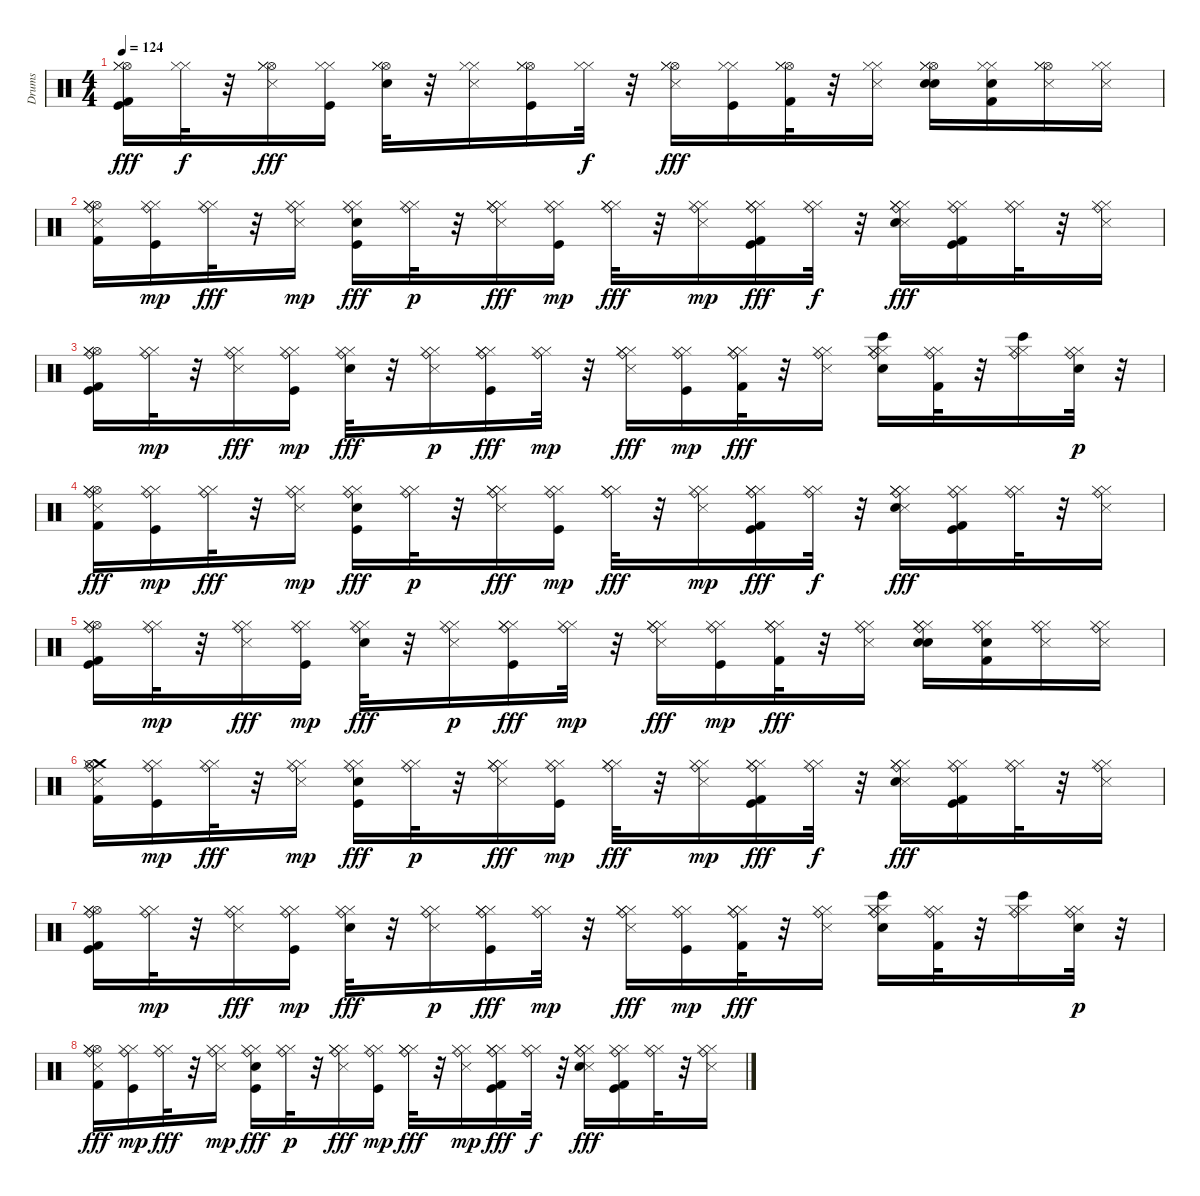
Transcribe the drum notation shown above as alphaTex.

\track ("Drums" "Drums") {instrument percussion}
\staff {score}
\articulation defaults
\ts (4 4)
\tempo 124
\clef neutral
\ks c
("Kick (hit)" "Kick (hit) 2" "Hi-Hat (open)" "Hi-Hat (closed)" "Hi-Hat (closed)").16{dy fff} ("Hi-Hat (closed)" "Hi-Hat (closed)").32{dy f} r.32 ("Metronome (hit)" "Hi-Hat (open)" "Hi-Hat (closed)" "Hi-Hat (closed)").16{dy fff} ("Kick (hit)" "Hi-Hat (closed)" "Hi-Hat (closed)").16 ("Hi-Hat (open)" "Electric Snare (hit)" "Hi-Hat (closed)" "Hi-Hat (closed)").32 r.32 ("Metronome (hit)" "Hi-Hat (closed)" "Hi-Hat (closed)").16 ("Kick (hit)" "Hi-Hat (open)" "Hi-Hat (closed)" "Hi-Hat (closed)").16 ("Hi-Hat (closed)" "Hi-Hat (closed)").32{dy f} r.32 ("Metronome (hit)" "Hi-Hat (open)" "Hi-Hat (closed)" "Hi-Hat (closed)").16{dy fff} ("Kick (hit)" "Hi-Hat (closed)" "Hi-Hat (closed)").16 ("Hi-Hat (open)" "Kick (hit) 2" "Hi-Hat (closed)" "Hi-Hat (closed)").32 r.32 ("Metronome (hit)" "Hi-Hat (closed)" "Hi-Hat (closed)").16 ("Hand Clap (hit)" "Hi-Hat (open)" "Electric Snare (hit)" "Hi-Hat (closed)" "Hi-Hat (closed)").16 ("Hand Clap (hit)" "Kick (hit) 2" "Hi-Hat (closed)" "Hi-Hat (closed)").16 ("Snare (side stick) 3" "Hi-Hat (open)" "Hi-Hat (closed)" "Hi-Hat (closed)").16 ("Snare (side stick) 3" "Hi-Hat (closed)" "Hi-Hat (closed)").16 |
("Metronome (hit)" "Ride (bell)" "Kick (hit) 2" "Hi-Hat (open)" "Hi-Hat (closed)" "Hi-Hat (closed)").16 ("Kick (hit)" "Ride (bell)" "Hi-Hat (closed)" "Hi-Hat (closed)").16{dy mp} ("Ride (bell)" "Hi-Hat (closed)" "Hi-Hat (closed)").32{dy fff} r.32 ("Metronome (hit)" "Ride (bell)" "Hi-Hat (closed)" "Hi-Hat (closed)").16{dy mp} ("Kick (hit)" "Ride (bell)" "Electric Snare (hit)" "Hi-Hat (closed)" "Hi-Hat (closed)").16{dy fff} ("Ride (bell)" "Hi-Hat (closed)" "Hi-Hat (closed)").32{dy p} r.32 ("Metronome (hit)" "Hi-Hat (closed)" "Ride (bell)" "Hi-Hat (closed)" "Hi-Hat (closed)").16{dy fff} ("Kick (hit)" "Ride (bell)" "Hi-Hat (closed)" "Hi-Hat (closed)").16{dy mp} ("Hi-Hat (closed)" "Ride (bell)" "Hi-Hat (closed)" "Hi-Hat (closed)").32{dy fff} r.32 ("Metronome (hit)" "Ride (bell)" "Hi-Hat (closed)" "Hi-Hat (closed)").16{dy mp} ("Kick (hit)" "Hi-Hat (closed)" "Ride (bell)" "Kick (hit) 2" "Hi-Hat (closed)" "Hi-Hat (closed)").16{dy fff} ("Ride (bell)" "Hi-Hat (closed)" "Hi-Hat (closed)").32{dy f} r.32 ("Metronome (hit)" "Hi-Hat (closed)" "Ride (bell)" "Electric Snare (hit)" "Hi-Hat (closed)" "Hi-Hat (closed)").16{dy fff} ("Kick (hit)" "Ride (bell)" "Kick (hit) 2" "Hi-Hat (closed)" "Hi-Hat (closed)").16 ("Ride (bell)" "Hi-Hat (closed)" "Hi-Hat (closed)").32 r.32 ("Metronome (hit)" "Ride (bell)" "Hi-Hat (closed)" "Hi-Hat (closed)").16 |
("Kick (hit)" "Ride (bell)" "Hi-Hat (open)" "Kick (hit) 2" "Hi-Hat (closed)" "Hi-Hat (closed)").16 ("Ride (bell)" "Hi-Hat (closed)" "Hi-Hat (closed)").32{dy mp} r.32 ("Metronome (hit)" "Ride (bell)" "Hi-Hat (closed)" "Hi-Hat (closed)").16{dy fff} ("Kick (hit)" "Ride (bell)" "Hi-Hat (closed)" "Hi-Hat (closed)").16{dy mp} ("Ride (bell)" "Electric Snare (hit)" "Hi-Hat (closed)" "Hi-Hat (closed)").32{dy fff} r.32 ("Metronome (hit)" "Ride (bell)" "Hi-Hat (closed)" "Hi-Hat (closed)").16{dy p} ("Kick (hit)" "Hi-Hat (closed)" "Ride (bell)" "Hi-Hat (closed)" "Hi-Hat (closed)").16{dy fff} ("Ride (bell)" "Hi-Hat (closed)" "Hi-Hat (closed)").32{dy mp} r.32 ("Metronome (hit)" "Hi-Hat (closed)" "Ride (bell)" "Hi-Hat (closed)" "Hi-Hat (closed)").16{dy fff} ("Kick (hit)" "Ride (bell)" "Hi-Hat (closed)" "Hi-Hat (closed)").16{dy mp} ("Hi-Hat (closed)" "Ride (bell)" "Kick (hit) 2" "Hi-Hat (closed)" "Hi-Hat (closed)").32{dy fff} r.32 ("Metronome (hit)" "Ride (bell)" "Hi-Hat (closed)" "Hi-Hat (closed)").16 ("Bongo High (hit)" "Hi-Hat (closed)" "Ride (bell)" "Electric Snare (hit)" "Hi-Hat (closed)" "Hi-Hat (closed)").16 ("Ride (bell)" "Kick (hit) 2" "Hi-Hat (closed)" "Hi-Hat (closed)").32 r.32 ("Bongo High (hit)" "Ride (bell)" "Hi-Hat (closed)" "Hi-Hat (closed)").16 ("Ride (bell)" "Hi-Hat (closed)" "Hi-Hat (closed)" "Electric Snare (hit)").32{dy p} r.32 |
("Metronome (hit)" "Ride (bell)" "Kick (hit) 2" "Hi-Hat (open)" "Hi-Hat (closed)" "Hi-Hat (closed)").16{dy fff} ("Kick (hit)" "Ride (bell)" "Hi-Hat (closed)" "Hi-Hat (closed)").16{dy mp} ("Ride (bell)" "Hi-Hat (closed)" "Hi-Hat (closed)").32{dy fff} r.32 ("Metronome (hit)" "Ride (bell)" "Hi-Hat (closed)" "Hi-Hat (closed)").16{dy mp} ("Kick (hit)" "Ride (bell)" "Electric Snare (hit)" "Hi-Hat (closed)" "Hi-Hat (closed)").16{dy fff} ("Ride (bell)" "Hi-Hat (closed)" "Hi-Hat (closed)").32{dy p} r.32 ("Metronome (hit)" "Hi-Hat (closed)" "Ride (bell)" "Hi-Hat (closed)" "Hi-Hat (closed)").16{dy fff} ("Kick (hit)" "Ride (bell)" "Hi-Hat (closed)" "Hi-Hat (closed)").16{dy mp} ("Hi-Hat (closed)" "Ride (bell)" "Hi-Hat (closed)" "Hi-Hat (closed)").32{dy fff} r.32 ("Metronome (hit)" "Ride (bell)" "Hi-Hat (closed)" "Hi-Hat (closed)").16{dy mp} ("Kick (hit)" "Hi-Hat (closed)" "Ride (bell)" "Kick (hit) 2" "Hi-Hat (closed)" "Hi-Hat (closed)").16{dy fff} ("Ride (bell)" "Hi-Hat (closed)" "Hi-Hat (closed)").32{dy f} r.32 ("Metronome (hit)" "Hi-Hat (closed)" "Ride (bell)" "Electric Snare (hit)" "Hi-Hat (closed)" "Hi-Hat (closed)").16{dy fff} ("Kick (hit)" "Ride (bell)" "Kick (hit) 2" "Hi-Hat (closed)" "Hi-Hat (closed)").16 ("Ride (bell)" "Hi-Hat (closed)" "Hi-Hat (closed)").32 r.32 ("Metronome (hit)" "Ride (bell)" "Hi-Hat (closed)" "Hi-Hat (closed)").16 |
("Kick (hit)" "Ride (bell)" "Kick (hit) 2" "Hi-Hat (open)" "Hi-Hat (closed)" "Hi-Hat (closed)").16 ("Ride (bell)" "Hi-Hat (closed)" "Hi-Hat (closed)").32{dy mp} r.32 ("Metronome (hit)" "Ride (bell)" "Hi-Hat (closed)" "Hi-Hat (closed)").16{dy fff} ("Kick (hit)" "Ride (bell)" "Hi-Hat (closed)" "Hi-Hat (closed)").16{dy mp} ("Ride (bell)" "Electric Snare (hit)" "Hi-Hat (closed)" "Hi-Hat (closed)").32{dy fff} r.32 ("Metronome (hit)" "Ride (bell)" "Hi-Hat (closed)" "Hi-Hat (closed)").16{dy p} ("Kick (hit)" "Hi-Hat (closed)" "Ride (bell)" "Hi-Hat (closed)" "Hi-Hat (closed)").16{dy fff} ("Ride (bell)" "Hi-Hat (closed)" "Hi-Hat (closed)").32{dy mp} r.32 ("Metronome (hit)" "Hi-Hat (closed)" "Ride (bell)" "Hi-Hat (closed)" "Hi-Hat (closed)").16{dy fff} ("Kick (hit)" "Ride (bell)" "Hi-Hat (closed)" "Hi-Hat (closed)").16{dy mp} ("Hi-Hat (closed)" "Ride (bell)" "Kick (hit) 2" "Hi-Hat (closed)" "Hi-Hat (closed)").32{dy fff} r.32 ("Metronome (hit)" "Ride (bell)" "Hi-Hat (closed)" "Hi-Hat (closed)").16 ("Hand Clap (hit)" "Hi-Hat (closed)" "Ride (bell)" "Electric Snare (hit)" "Hi-Hat (closed)" "Hi-Hat (closed)").16 ("Hand Clap (hit)" "Ride (bell)" "Kick (hit) 2" "Hi-Hat (closed)" "Hi-Hat (closed)").16 ("Snare (side stick) 3" "Ride (bell)" "Hi-Hat (closed)" "Hi-Hat (closed)").16 ("Snare (side stick) 3" "Ride (bell)" "Hi-Hat (closed)" "Hi-Hat (closed)").16 |
("Metronome (hit)" "Crash medium (hit)" "Ride (bell)" "Kick (hit) 2" "Hi-Hat (open)" "Hi-Hat (closed)").16 ("Kick (hit)" "Ride (bell)" "Hi-Hat (closed)" "Hi-Hat (closed)").16{dy mp} ("Ride (bell)" "Hi-Hat (closed)" "Hi-Hat (closed)").32{dy fff} r.32 ("Metronome (hit)" "Ride (bell)" "Hi-Hat (closed)" "Hi-Hat (closed)").16{dy mp} ("Kick (hit)" "Ride (bell)" "Electric Snare (hit)" "Hi-Hat (closed)" "Hi-Hat (closed)").16{dy fff} ("Ride (bell)" "Hi-Hat (closed)" "Hi-Hat (closed)").32{dy p} r.32 ("Metronome (hit)" "Hi-Hat (closed)" "Ride (bell)" "Hi-Hat (closed)" "Hi-Hat (closed)").16{dy fff} ("Kick (hit)" "Ride (bell)" "Hi-Hat (closed)" "Hi-Hat (closed)").16{dy mp} ("Hi-Hat (closed)" "Ride (bell)" "Hi-Hat (closed)" "Hi-Hat (closed)").32{dy fff} r.32 ("Metronome (hit)" "Ride (bell)" "Hi-Hat (closed)" "Hi-Hat (closed)").16{dy mp} ("Kick (hit)" "Hi-Hat (closed)" "Ride (bell)" "Kick (hit) 2" "Hi-Hat (closed)" "Hi-Hat (closed)").16{dy fff} ("Ride (bell)" "Hi-Hat (closed)" "Hi-Hat (closed)").32{dy f} r.32 ("Metronome (hit)" "Hi-Hat (closed)" "Ride (bell)" "Electric Snare (hit)" "Hi-Hat (closed)" "Hi-Hat (closed)").16{dy fff} ("Kick (hit)" "Ride (bell)" "Kick (hit) 2" "Hi-Hat (closed)" "Hi-Hat (closed)").16 ("Ride (bell)" "Hi-Hat (closed)" "Hi-Hat (closed)").32 r.32 ("Metronome (hit)" "Ride (bell)" "Hi-Hat (closed)" "Hi-Hat (closed)").16 |
("Kick (hit)" "Ride (bell)" "Hi-Hat (open)" "Kick (hit) 2" "Hi-Hat (closed)" "Hi-Hat (closed)").16 ("Ride (bell)" "Hi-Hat (closed)" "Hi-Hat (closed)").32{dy mp} r.32 ("Metronome (hit)" "Ride (bell)" "Hi-Hat (closed)" "Hi-Hat (closed)").16{dy fff} ("Kick (hit)" "Ride (bell)" "Hi-Hat (closed)" "Hi-Hat (closed)").16{dy mp} ("Ride (bell)" "Electric Snare (hit)" "Hi-Hat (closed)" "Hi-Hat (closed)").32{dy fff} r.32 ("Metronome (hit)" "Ride (bell)" "Hi-Hat (closed)" "Hi-Hat (closed)").16{dy p} ("Kick (hit)" "Hi-Hat (closed)" "Ride (bell)" "Hi-Hat (closed)" "Hi-Hat (closed)").16{dy fff} ("Ride (bell)" "Hi-Hat (closed)" "Hi-Hat (closed)").32{dy mp} r.32 ("Metronome (hit)" "Hi-Hat (closed)" "Ride (bell)" "Hi-Hat (closed)" "Hi-Hat (closed)").16{dy fff} ("Kick (hit)" "Ride (bell)" "Hi-Hat (closed)" "Hi-Hat (closed)").16{dy mp} ("Hi-Hat (closed)" "Ride (bell)" "Kick (hit) 2" "Hi-Hat (closed)" "Hi-Hat (closed)").32{dy fff} r.32 ("Metronome (hit)" "Ride (bell)" "Hi-Hat (closed)" "Hi-Hat (closed)").16 ("Bongo High (hit)" "Hi-Hat (closed)" "Ride (bell)" "Electric Snare (hit)" "Hi-Hat (closed)" "Hi-Hat (closed)").16 ("Ride (bell)" "Kick (hit) 2" "Hi-Hat (closed)" "Hi-Hat (closed)").32 r.32 ("Bongo High (hit)" "Ride (bell)" "Hi-Hat (closed)" "Hi-Hat (closed)").16 ("Ride (bell)" "Hi-Hat (closed)" "Hi-Hat (closed)" "Electric Snare (hit)").32{dy p} r.32 |
("Metronome (hit)" "Ride (bell)" "Kick (hit) 2" "Hi-Hat (open)" "Hi-Hat (closed)" "Hi-Hat (closed)").16{dy fff} ("Kick (hit)" "Ride (bell)" "Hi-Hat (closed)" "Hi-Hat (closed)").16{dy mp} ("Ride (bell)" "Hi-Hat (closed)" "Hi-Hat (closed)").32{dy fff} r.32 ("Metronome (hit)" "Ride (bell)" "Hi-Hat (closed)" "Hi-Hat (closed)").16{dy mp} ("Kick (hit)" "Ride (bell)" "Electric Snare (hit)" "Hi-Hat (closed)" "Hi-Hat (closed)").16{dy fff} ("Ride (bell)" "Hi-Hat (closed)" "Hi-Hat (closed)").32{dy p} r.32 ("Metronome (hit)" "Hi-Hat (closed)" "Ride (bell)" "Hi-Hat (closed)" "Hi-Hat (closed)").16{dy fff} ("Kick (hit)" "Ride (bell)" "Hi-Hat (closed)" "Hi-Hat (closed)").16{dy mp} ("Hi-Hat (closed)" "Ride (bell)" "Hi-Hat (closed)" "Hi-Hat (closed)").32{dy fff} r.32 ("Metronome (hit)" "Ride (bell)" "Hi-Hat (closed)" "Hi-Hat (closed)").16{dy mp} ("Kick (hit)" "Hi-Hat (closed)" "Ride (bell)" "Kick (hit) 2" "Hi-Hat (closed)" "Hi-Hat (closed)").16{dy fff} ("Ride (bell)" "Hi-Hat (closed)" "Hi-Hat (closed)").32{dy f} r.32 ("Metronome (hit)" "Hi-Hat (closed)" "Ride (bell)" "Electric Snare (hit)" "Hi-Hat (closed)" "Hi-Hat (closed)").16{dy fff} ("Kick (hit)" "Ride (bell)" "Kick (hit) 2" "Hi-Hat (closed)" "Hi-Hat (closed)").16 ("Ride (bell)" "Hi-Hat (closed)" "Hi-Hat (closed)").32 r.32 ("Metronome (hit)" "Ride (bell)" "Hi-Hat (closed)" "Hi-Hat (closed)").16
